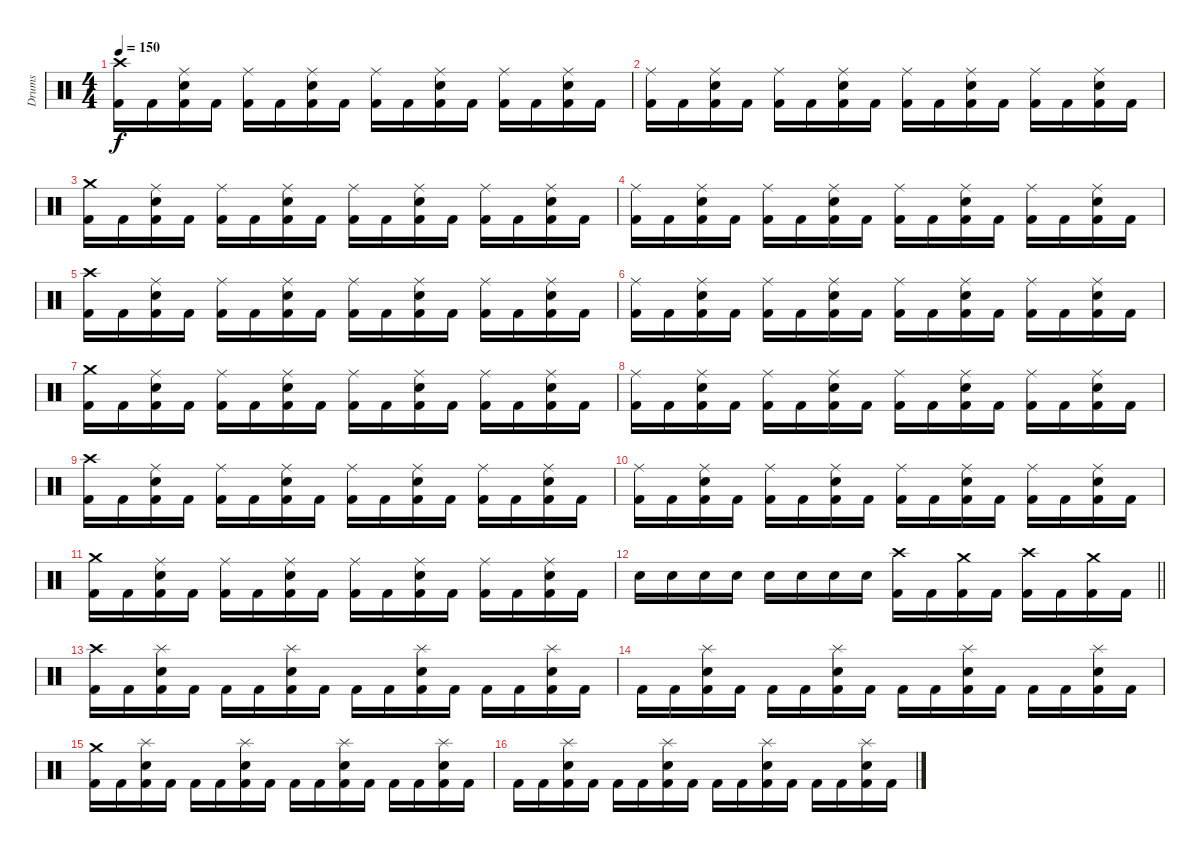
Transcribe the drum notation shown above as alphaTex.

\track ("Drums" "Drums") {instrument percussion}
\staff {score}
\articulation defaults
\ts (4 4)
\tempo 150
\clef neutral
\ks c
("Crash high (hit)" "Kick (hit) 2").16{dy f} "Kick (hit) 2".16 ("Ride (middle)" "Snare (hit) 2" "Kick (hit) 2").16 "Kick (hit) 2".16 ("Ride (middle)" "Kick (hit) 2").16 "Kick (hit) 2".16 ("Ride (middle)" "Snare (hit) 2" "Kick (hit) 2").16 "Kick (hit) 2".16 ("Ride (middle)" "Kick (hit) 2").16 "Kick (hit) 2".16 ("Ride (middle)" "Snare (hit) 2" "Kick (hit) 2").16 "Kick (hit) 2".16 ("Ride (middle)" "Kick (hit) 2").16 "Kick (hit) 2".16 ("Ride (middle)" "Snare (hit) 2" "Kick (hit) 2").16 "Kick (hit) 2".16 |
("Ride (middle)" "Kick (hit) 2").16 "Kick (hit) 2".16 ("Ride (middle)" "Snare (hit) 2" "Kick (hit) 2").16 "Kick (hit) 2".16 ("Ride (middle)" "Kick (hit) 2").16 "Kick (hit) 2".16 ("Ride (middle)" "Snare (hit) 2" "Kick (hit) 2").16 "Kick (hit) 2".16 ("Ride (middle)" "Kick (hit) 2").16 "Kick (hit) 2".16 ("Ride (middle)" "Snare (hit) 2" "Kick (hit) 2").16 "Kick (hit) 2".16 ("Ride (middle)" "Kick (hit) 2").16 "Kick (hit) 2".16 ("Ride (middle)" "Snare (hit) 2" "Kick (hit) 2").16 "Kick (hit) 2".16 |
("Crash medium (hit)" "Kick (hit) 2").16 "Kick (hit) 2".16 ("Ride (middle)" "Snare (hit) 2" "Kick (hit) 2").16 "Kick (hit) 2".16 ("Ride (middle)" "Kick (hit) 2").16 "Kick (hit) 2".16 ("Ride (middle)" "Snare (hit) 2" "Kick (hit) 2").16 "Kick (hit) 2".16 ("Ride (middle)" "Kick (hit) 2").16 "Kick (hit) 2".16 ("Ride (middle)" "Snare (hit) 2" "Kick (hit) 2").16 "Kick (hit) 2".16 ("Ride (middle)" "Kick (hit) 2").16 "Kick (hit) 2".16 ("Ride (middle)" "Snare (hit) 2" "Kick (hit) 2").16 "Kick (hit) 2".16 |
("Ride (middle)" "Kick (hit) 2").16 "Kick (hit) 2".16 ("Ride (middle)" "Snare (hit) 2" "Kick (hit) 2").16 "Kick (hit) 2".16 ("Ride (middle)" "Kick (hit) 2").16 "Kick (hit) 2".16 ("Ride (middle)" "Snare (hit) 2" "Kick (hit) 2").16 "Kick (hit) 2".16 ("Ride (middle)" "Kick (hit) 2").16 "Kick (hit) 2".16 ("Ride (middle)" "Snare (hit) 2" "Kick (hit) 2").16 "Kick (hit) 2".16 ("Ride (middle)" "Kick (hit) 2").16 "Kick (hit) 2".16 ("Ride (middle)" "Snare (hit) 2" "Kick (hit) 2").16 "Kick (hit) 2".16 |
("Crash high (hit)" "Kick (hit) 2").16 "Kick (hit) 2".16 ("Ride (middle)" "Snare (hit) 2" "Kick (hit) 2").16 "Kick (hit) 2".16 ("Ride (middle)" "Kick (hit) 2").16 "Kick (hit) 2".16 ("Ride (middle)" "Snare (hit) 2" "Kick (hit) 2").16 "Kick (hit) 2".16 ("Ride (middle)" "Kick (hit) 2").16 "Kick (hit) 2".16 ("Ride (middle)" "Snare (hit) 2" "Kick (hit) 2").16 "Kick (hit) 2".16 ("Ride (middle)" "Kick (hit) 2").16 "Kick (hit) 2".16 ("Ride (middle)" "Snare (hit) 2" "Kick (hit) 2").16 "Kick (hit) 2".16 |
("Ride (middle)" "Kick (hit) 2").16 "Kick (hit) 2".16 ("Ride (middle)" "Snare (hit) 2" "Kick (hit) 2").16 "Kick (hit) 2".16 ("Ride (middle)" "Kick (hit) 2").16 "Kick (hit) 2".16 ("Ride (middle)" "Snare (hit) 2" "Kick (hit) 2").16 "Kick (hit) 2".16 ("Ride (middle)" "Kick (hit) 2").16 "Kick (hit) 2".16 ("Ride (middle)" "Snare (hit) 2" "Kick (hit) 2").16 "Kick (hit) 2".16 ("Ride (middle)" "Kick (hit) 2").16 "Kick (hit) 2".16 ("Ride (middle)" "Snare (hit) 2" "Kick (hit) 2").16 "Kick (hit) 2".16 |
("Crash medium (hit)" "Kick (hit) 2").16 "Kick (hit) 2".16 ("Ride (middle)" "Snare (hit) 2" "Kick (hit) 2").16 "Kick (hit) 2".16 ("Ride (middle)" "Kick (hit) 2").16 "Kick (hit) 2".16 ("Ride (middle)" "Snare (hit) 2" "Kick (hit) 2").16 "Kick (hit) 2".16 ("Ride (middle)" "Kick (hit) 2").16 "Kick (hit) 2".16 ("Ride (middle)" "Snare (hit) 2" "Kick (hit) 2").16 "Kick (hit) 2".16 ("Ride (middle)" "Kick (hit) 2").16 "Kick (hit) 2".16 ("Ride (middle)" "Snare (hit) 2" "Kick (hit) 2").16 "Kick (hit) 2".16 |
("Ride (middle)" "Kick (hit) 2").16 "Kick (hit) 2".16 ("Ride (middle)" "Snare (hit) 2" "Kick (hit) 2").16 "Kick (hit) 2".16 ("Ride (middle)" "Kick (hit) 2").16 "Kick (hit) 2".16 ("Ride (middle)" "Snare (hit) 2" "Kick (hit) 2").16 "Kick (hit) 2".16 ("Ride (middle)" "Kick (hit) 2").16 "Kick (hit) 2".16 ("Ride (middle)" "Snare (hit) 2" "Kick (hit) 2").16 "Kick (hit) 2".16 ("Ride (middle)" "Kick (hit) 2").16 "Kick (hit) 2".16 ("Ride (middle)" "Snare (hit) 2" "Kick (hit) 2").16 "Kick (hit) 2".16 |
("Crash high (hit)" "Kick (hit) 2").16 "Kick (hit) 2".16 ("Ride (middle)" "Snare (hit) 2" "Kick (hit) 2").16 "Kick (hit) 2".16 ("Ride (middle)" "Kick (hit) 2").16 "Kick (hit) 2".16 ("Ride (middle)" "Snare (hit) 2" "Kick (hit) 2").16 "Kick (hit) 2".16 ("Ride (middle)" "Kick (hit) 2").16 "Kick (hit) 2".16 ("Ride (middle)" "Snare (hit) 2" "Kick (hit) 2").16 "Kick (hit) 2".16 ("Ride (middle)" "Kick (hit) 2").16 "Kick (hit) 2".16 ("Ride (middle)" "Snare (hit) 2" "Kick (hit) 2").16 "Kick (hit) 2".16 |
("Ride (middle)" "Kick (hit) 2").16 "Kick (hit) 2".16 ("Ride (middle)" "Snare (hit) 2" "Kick (hit) 2").16 "Kick (hit) 2".16 ("Ride (middle)" "Kick (hit) 2").16 "Kick (hit) 2".16 ("Ride (middle)" "Snare (hit) 2" "Kick (hit) 2").16 "Kick (hit) 2".16 ("Ride (middle)" "Kick (hit) 2").16 "Kick (hit) 2".16 ("Ride (middle)" "Snare (hit) 2" "Kick (hit) 2").16 "Kick (hit) 2".16 ("Ride (middle)" "Kick (hit) 2").16 "Kick (hit) 2".16 ("Ride (middle)" "Snare (hit) 2" "Kick (hit) 2").16 "Kick (hit) 2".16 |
("Crash medium (hit)" "Kick (hit) 2").16 "Kick (hit) 2".16 ("Ride (middle)" "Snare (hit) 2" "Kick (hit) 2").16 "Kick (hit) 2".16 ("Ride (middle)" "Kick (hit) 2").16 "Kick (hit) 2".16 ("Ride (middle)" "Snare (hit) 2" "Kick (hit) 2").16 "Kick (hit) 2".16 ("Ride (middle)" "Kick (hit) 2").16 "Kick (hit) 2".16 ("Ride (middle)" "Snare (hit) 2" "Kick (hit) 2").16 "Kick (hit) 2".16 ("Ride (middle)" "Kick (hit) 2").16 "Kick (hit) 2".16 ("Ride (middle)" "Snare (hit) 2" "Kick (hit) 2").16 "Kick (hit) 2".16 |
\barLineRight lightlight "Snare (hit) 2".16 "Snare (hit) 2".16 "Snare (hit) 2".16 "Snare (hit) 2".16 "Snare (hit) 2".16 "Snare (hit) 2".16 "Snare (hit) 2".16 "Snare (hit) 2".16
("Crash high (hit)" "Kick (hit) 2").16 "Kick (hit) 2".16 ("Crash medium (hit)" "Kick (hit) 2").16 "Kick (hit) 2".16 ("Crash high (hit)" "Kick (hit) 2").16 "Kick (hit) 2".16 ("Crash medium (hit)" "Kick (hit) 2").16 "Kick (hit) 2".16 |
\section ("" "")
("Crash high (hit)" "Kick (hit) 2").16 "Kick (hit) 2".16 ("Splash (hit)" "Snare (hit) 2" "Kick (hit) 2").16 "Kick (hit) 2".16 "Kick (hit) 2".16 "Kick (hit) 2".16 ("Splash (hit)" "Snare (hit) 2" "Kick (hit) 2").16 "Kick (hit) 2".16 "Kick (hit) 2".16 "Kick (hit) 2".16 ("Splash (hit)" "Snare (hit) 2" "Kick (hit) 2").16 "Kick (hit) 2".16 "Kick (hit) 2".16 "Kick (hit) 2".16 ("Splash (hit)" "Snare (hit) 2" "Kick (hit) 2").16 "Kick (hit) 2".16 |
"Kick (hit) 2".16 "Kick (hit) 2".16 ("Splash (hit)" "Snare (hit) 2" "Kick (hit) 2").16 "Kick (hit) 2".16 "Kick (hit) 2".16 "Kick (hit) 2".16 ("Splash (hit)" "Snare (hit) 2" "Kick (hit) 2").16 "Kick (hit) 2".16 "Kick (hit) 2".16 "Kick (hit) 2".16 ("Splash (hit)" "Snare (hit) 2" "Kick (hit) 2").16 "Kick (hit) 2".16 "Kick (hit) 2".16 "Kick (hit) 2".16 ("Splash (hit)" "Snare (hit) 2" "Kick (hit) 2").16 "Kick (hit) 2".16 |
("Crash medium (hit)" "Kick (hit) 2").16 "Kick (hit) 2".16 ("Splash (hit)" "Snare (hit) 2" "Kick (hit) 2").16 "Kick (hit) 2".16 "Kick (hit) 2".16 "Kick (hit) 2".16 ("Splash (hit)" "Snare (hit) 2" "Kick (hit) 2").16 "Kick (hit) 2".16 "Kick (hit) 2".16 "Kick (hit) 2".16 ("Splash (hit)" "Snare (hit) 2" "Kick (hit) 2").16 "Kick (hit) 2".16 "Kick (hit) 2".16 "Kick (hit) 2".16 ("Splash (hit)" "Snare (hit) 2" "Kick (hit) 2").16 "Kick (hit) 2".16 |
"Kick (hit) 2".16 "Kick (hit) 2".16 ("Splash (hit)" "Snare (hit) 2" "Kick (hit) 2").16 "Kick (hit) 2".16 "Kick (hit) 2".16 "Kick (hit) 2".16 ("Splash (hit)" "Snare (hit) 2" "Kick (hit) 2").16 "Kick (hit) 2".16 "Kick (hit) 2".16 "Kick (hit) 2".16 ("Splash (hit)" "Snare (hit) 2" "Kick (hit) 2").16 "Kick (hit) 2".16 "Kick (hit) 2".16 "Kick (hit) 2".16 ("Splash (hit)" "Snare (hit) 2" "Kick (hit) 2").16 "Kick (hit) 2".16
